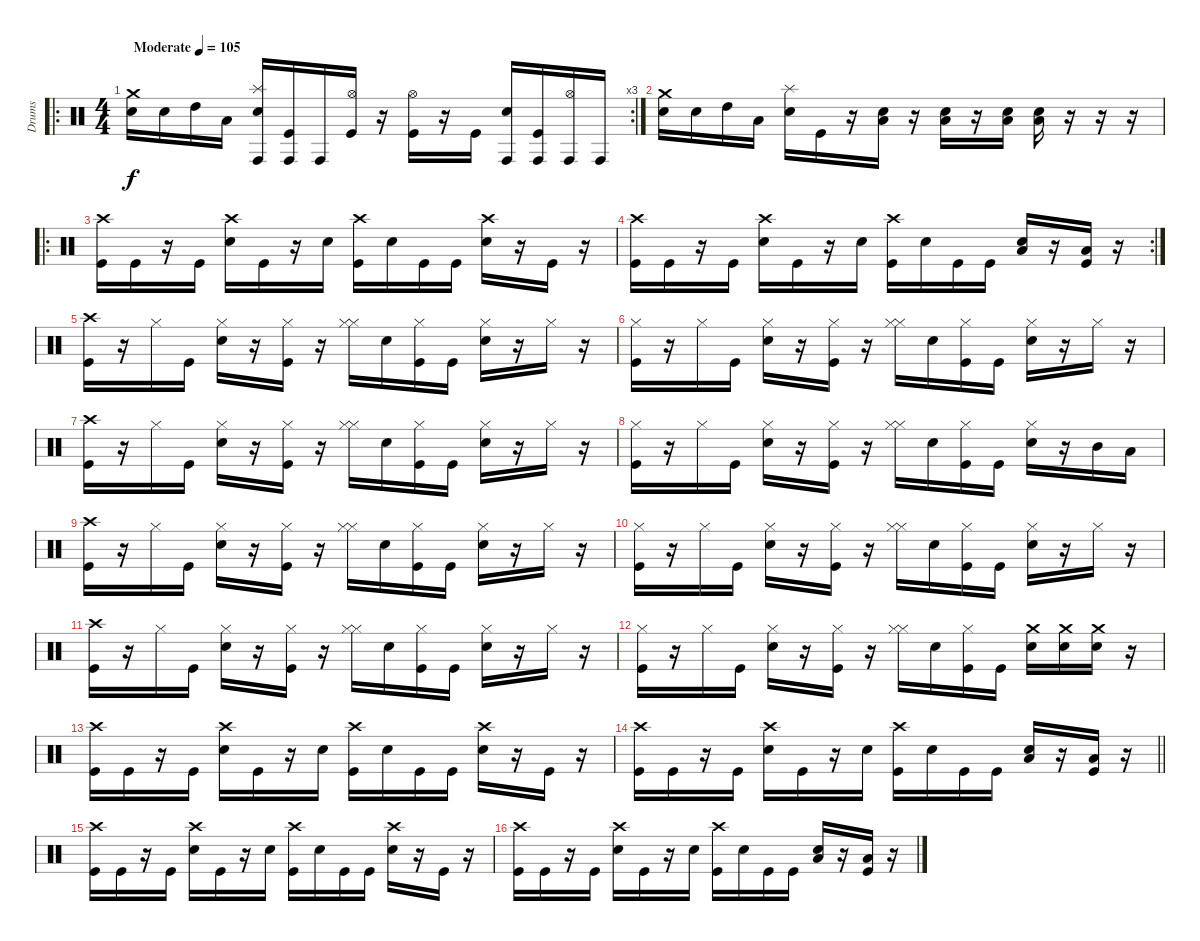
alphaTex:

\track ("Drums" "Drums") {instrument percussion}
\staff {score}
\articulation defaults
\ro
\rc 3
\ts (4 4)
\tempo (105 "Moderate")
\clef neutral
\ks c
("Crash medium (hit)" "Electric Snare (hit)").16{dy f} "Electric Snare (hit)".16 "High Tom (hit)".16 "Low Floor Tom (hit)".16 ("Conga high (hit)" "Splash (hit)" "Electric Snare (hit)").16 ("Conga high (hit)" "Kick (hit)").16 "Conga high (hit)".16 ("Kick (hit)" "Hi-Hat (open)").16 r.16 ("Kick (hit)" "Hi-Hat (open)").16 r.16 "Kick (hit)".16 ("Conga high (hit)" "Electric Snare (hit)").16 ("Conga high (hit)" "Kick (hit)").16 ("Conga high (hit)" "Hi-Hat (open)").16 "Conga high (hit)".16 |
("Crash medium (hit)" "Electric Snare (hit)").16 "Electric Snare (hit)".16 "High Tom (hit)".16 "Low Floor Tom (hit)".16 ("Splash (hit)" "Electric Snare (hit)").16 "Kick (hit)".16 r.16 ("Low Floor Tom (hit)" "Electric Snare (hit)").16 r.16 ("Low Floor Tom (hit)" "Electric Snare (hit)").16 r.16 ("Low Floor Tom (hit)" "Electric Snare (hit)").16 ("Low Floor Tom (hit)" "Electric Snare (hit)").16 r.16 r.16 r.16 |
\ro
("Crash high (hit)" "Kick (hit)").16 "Kick (hit)".16 r.16 "Kick (hit)".16 ("Crash high (hit)" "Electric Snare (hit)").16 "Kick (hit)".16 r.16 "Electric Snare (hit)".16 ("Crash high (hit)" "Kick (hit)").16 "Electric Snare (hit)".16 "Kick (hit)".16 "Kick (hit)".16 ("Crash high (hit)" "Electric Snare (hit)").16 r.16 "Kick (hit)".16 r.16 |
\rc 2
("Crash high (hit)" "Kick (hit)").16 "Kick (hit)".16 r.16 "Kick (hit)".16 ("Crash high (hit)" "Electric Snare (hit)").16 "Kick (hit)".16 r.16 "Electric Snare (hit)".16 ("Crash high (hit)" "Kick (hit)").16 "Electric Snare (hit)".16 "Kick (hit)".16 "Kick (hit)".16 ("Low Floor Tom (hit)" "Electric Snare (hit)").16 r.16 ("Low Floor Tom (hit)" "Kick (hit)").16 r.16 |
("Crash high (hit)" "Kick (hit)").16 r.16 "Hi-Hat (closed)".16 "Kick (hit)".16 ("Hi-Hat (closed)" "Electric Snare (hit)").16 r.16 ("Hi-Hat (closed)" "Kick (hit)").16 r.16 ("Hi-Hat (closed)" "Hi-Hat (closed)").16 "Electric Snare (hit)".16 ("Hi-Hat (closed)" "Kick (hit)").16 "Kick (hit)".16 ("Hi-Hat (closed)" "Electric Snare (hit)").16 r.16 "Hi-Hat (closed)".16 r.16 |
("Hi-Hat (closed)" "Kick (hit)").16 r.16 "Hi-Hat (closed)".16 "Kick (hit)".16 ("Hi-Hat (closed)" "Electric Snare (hit)").16 r.16 ("Hi-Hat (closed)" "Kick (hit)").16 r.16 ("Hi-Hat (closed)" "Hi-Hat (closed)").16 "Electric Snare (hit)".16 ("Hi-Hat (closed)" "Kick (hit)").16 "Kick (hit)".16 ("Hi-Hat (closed)" "Electric Snare (hit)").16 r.16 "Hi-Hat (closed)".16 r.16 |
("Crash high (hit)" "Kick (hit)").16 r.16 "Hi-Hat (closed)".16 "Kick (hit)".16 ("Hi-Hat (closed)" "Electric Snare (hit)").16 r.16 ("Hi-Hat (closed)" "Kick (hit)").16 r.16 ("Hi-Hat (closed)" "Hi-Hat (closed)").16 "Electric Snare (hit)".16 ("Hi-Hat (closed)" "Kick (hit)").16 "Kick (hit)".16 ("Hi-Hat (closed)" "Electric Snare (hit)").16 r.16 "Hi-Hat (closed)".16 r.16 |
("Hi-Hat (closed)" "Kick (hit)").16 r.16 "Hi-Hat (closed)".16 "Kick (hit)".16 ("Hi-Hat (closed)" "Electric Snare (hit)").16 r.16 ("Hi-Hat (closed)" "Kick (hit)").16 r.16 ("Hi-Hat (closed)" "Hi-Hat (closed)").16 "Electric Snare (hit)".16 ("Hi-Hat (closed)" "Kick (hit)").16 "Kick (hit)".16 ("Hi-Hat (closed)" "Electric Snare (hit)").16 r.16 "Mid Tom (hit)".16 "Low Tom (hit)".16 |
("Crash high (hit)" "Kick (hit)").16 r.16 "Hi-Hat (closed)".16 "Kick (hit)".16 ("Hi-Hat (closed)" "Electric Snare (hit)").16 r.16 ("Hi-Hat (closed)" "Kick (hit)").16 r.16 ("Hi-Hat (closed)" "Hi-Hat (closed)").16 "Electric Snare (hit)".16 ("Hi-Hat (closed)" "Kick (hit)").16 "Kick (hit)".16 ("Hi-Hat (closed)" "Electric Snare (hit)").16 r.16 "Hi-Hat (closed)".16 r.16 |
("Hi-Hat (closed)" "Kick (hit)").16 r.16 "Hi-Hat (closed)".16 "Kick (hit)".16 ("Hi-Hat (closed)" "Electric Snare (hit)").16 r.16 ("Hi-Hat (closed)" "Kick (hit)").16 r.16 ("Hi-Hat (closed)" "Hi-Hat (closed)").16 "Electric Snare (hit)".16 ("Hi-Hat (closed)" "Kick (hit)").16 "Kick (hit)".16 ("Hi-Hat (closed)" "Electric Snare (hit)").16 r.16 "Hi-Hat (closed)".16 r.16 |
("Crash high (hit)" "Kick (hit)").16 r.16 "Hi-Hat (closed)".16 "Kick (hit)".16 ("Hi-Hat (closed)" "Electric Snare (hit)").16 r.16 ("Hi-Hat (closed)" "Kick (hit)").16 r.16 ("Hi-Hat (closed)" "Hi-Hat (closed)").16 "Electric Snare (hit)".16 ("Hi-Hat (closed)" "Kick (hit)").16 "Kick (hit)".16 ("Hi-Hat (closed)" "Electric Snare (hit)").16 r.16 "Hi-Hat (closed)".16 r.16 |
("Hi-Hat (closed)" "Kick (hit)").16 r.16 "Hi-Hat (closed)".16 "Kick (hit)".16 ("Hi-Hat (closed)" "Electric Snare (hit)").16 r.16 ("Hi-Hat (closed)" "Kick (hit)").16 r.16 ("Hi-Hat (closed)" "Hi-Hat (closed)").16 "Electric Snare (hit)".16 ("Hi-Hat (closed)" "Kick (hit)").16 "Kick (hit)".16 ("Crash medium (hit)" "Electric Snare (hit)").16 ("Crash medium (hit)" "Electric Snare (hit)").16 ("Crash medium (hit)" "Electric Snare (hit)").16 r.16 |
("Crash high (hit)" "Kick (hit)").16 "Kick (hit)".16 r.16 "Kick (hit)".16 ("Crash high (hit)" "Electric Snare (hit)").16 "Kick (hit)".16 r.16 "Electric Snare (hit)".16 ("Crash high (hit)" "Kick (hit)").16 "Electric Snare (hit)".16 "Kick (hit)".16 "Kick (hit)".16 ("Crash high (hit)" "Electric Snare (hit)").16 r.16 "Kick (hit)".16 r.16 |
\barLineRight lightlight
("Crash high (hit)" "Kick (hit)").16 "Kick (hit)".16 r.16 "Kick (hit)".16 ("Crash high (hit)" "Electric Snare (hit)").16 "Kick (hit)".16 r.16 "Electric Snare (hit)".16 ("Crash high (hit)" "Kick (hit)").16 "Electric Snare (hit)".16 "Kick (hit)".16 "Kick (hit)".16 ("Low Floor Tom (hit)" "Electric Snare (hit)").16 r.16 ("Low Floor Tom (hit)" "Kick (hit)").16 r.16 |
("Crash high (hit)" "Kick (hit)").16 "Kick (hit)".16 r.16 "Kick (hit)".16 ("Crash high (hit)" "Electric Snare (hit)").16 "Kick (hit)".16 r.16 "Electric Snare (hit)".16 ("Crash high (hit)" "Kick (hit)").16 "Electric Snare (hit)".16 "Kick (hit)".16 "Kick (hit)".16 ("Crash high (hit)" "Electric Snare (hit)").16 r.16 "Kick (hit)".16 r.16 |
("Crash high (hit)" "Kick (hit)").16 "Kick (hit)".16 r.16 "Kick (hit)".16 ("Crash high (hit)" "Electric Snare (hit)").16 "Kick (hit)".16 r.16 "Electric Snare (hit)".16 ("Crash high (hit)" "Kick (hit)").16 "Electric Snare (hit)".16 "Kick (hit)".16 "Kick (hit)".16 ("Low Floor Tom (hit)" "Electric Snare (hit)").16 r.16 ("Low Floor Tom (hit)" "Kick (hit)").16 r.16
